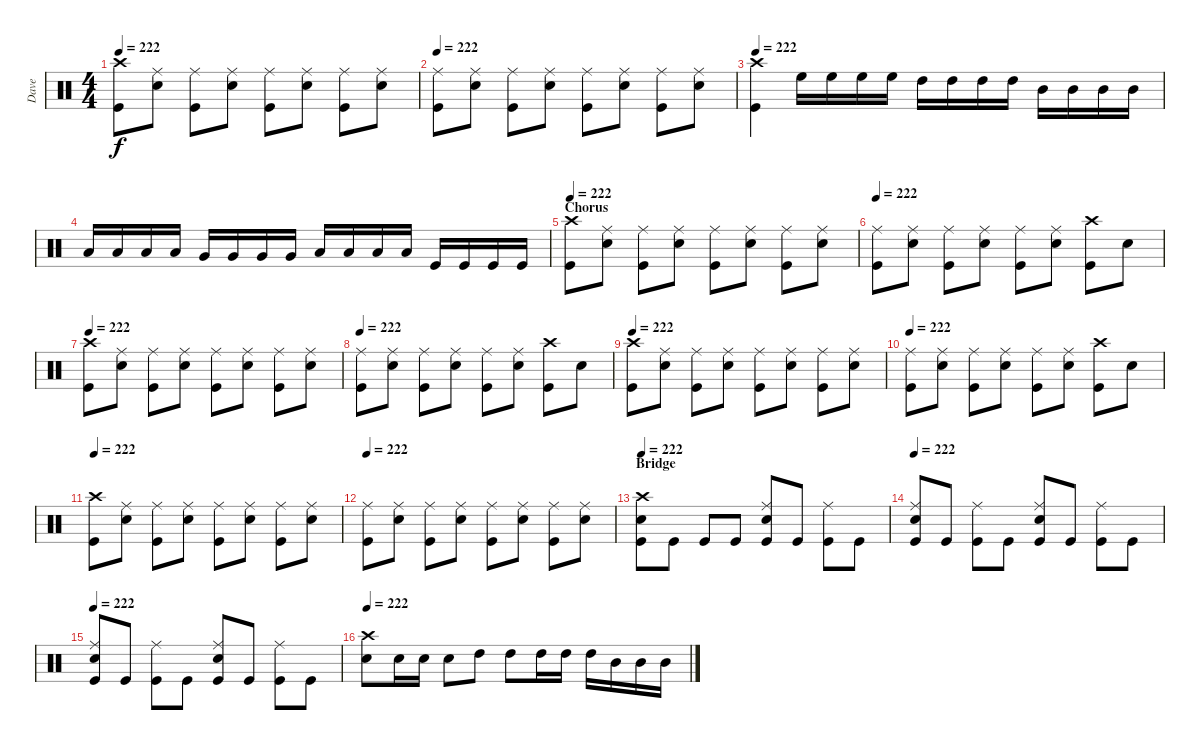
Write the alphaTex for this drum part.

\track ("Dave" "Dave") {instrument percussion}
\staff {score}
\articulation defaults
\ts (4 4)
\tempo 222
\clef neutral
\ks c
("Crash high (hit)" "Kick (hit)").8{dy f} ("Ride (middle)" "Snare (hit) 2").8 ("Ride (middle)" "Kick (hit)").8 ("Ride (middle)" "Snare (hit) 2").8 ("Ride (middle)" "Kick (hit)").8 ("Ride (middle)" "Snare (hit) 2").8 ("Ride (middle)" "Kick (hit)").8 ("Ride (middle)" "Snare (hit) 2").8 |
\tempo 222
("Ride (middle)" "Kick (hit)").8 ("Ride (middle)" "Snare (hit) 2").8 ("Ride (middle)" "Kick (hit)").8 ("Ride (middle)" "Snare (hit) 2").8 ("Ride (middle)" "Kick (hit)").8 ("Ride (middle)" "Snare (hit) 2").8 ("Ride (middle)" "Kick (hit)").8 ("Ride (middle)" "Snare (hit) 2").8 |
\tempo 222
("Crash high (hit)" "Kick (hit)").4 "High Floor Tom (hit)".16 "High Floor Tom (hit)".16 "High Floor Tom (hit)".16 "High Floor Tom (hit)".16 "High Tom (hit)".16 "High Tom (hit)".16 "High Tom (hit)".16 "High Tom (hit)".16 "Mid Tom (hit)".16 "Mid Tom (hit)".16 "Mid Tom (hit)".16 "Mid Tom (hit)".16 |
"Low Tom (hit)".16 "Low Tom (hit)".16 "Low Tom (hit)".16 "Low Tom (hit)".16 "Very Low Tom (hit)".16 "Very Low Tom (hit)".16 "Very Low Tom (hit)".16 "Very Low Tom (hit)".16 "Low Floor Tom (hit)".16 "Low Floor Tom (hit)".16 "Low Floor Tom (hit)".16 "Low Floor Tom (hit)".16 "Kick (hit)".16 "Kick (hit)".16 "Kick (hit)".16 "Kick (hit)".16 |
\section ("" "Chorus")
\tempo 222
("Crash high (hit)" "Kick (hit)").8 ("Ride (middle)" "Snare (hit) 2").8 ("Ride (middle)" "Kick (hit)").8 ("Ride (middle)" "Snare (hit) 2").8 ("Ride (middle)" "Kick (hit)").8 ("Ride (middle)" "Snare (hit) 2").8 ("Ride (middle)" "Kick (hit)").8 ("Ride (middle)" "Snare (hit) 2").8 |
\tempo 222
("Ride (middle)" "Kick (hit)").8 ("Ride (middle)" "Snare (hit) 2").8 ("Ride (middle)" "Kick (hit)").8 ("Ride (middle)" "Snare (hit) 2").8 ("Ride (middle)" "Kick (hit)").8 ("Ride (middle)" "Snare (hit) 2").8 ("Crash high (hit)" "Kick (hit)").8 "Snare (hit) 2".8 |
\tempo 222
("Crash high (hit)" "Kick (hit)").8 ("Ride (middle)" "Snare (hit) 2").8 ("Ride (middle)" "Kick (hit)").8 ("Ride (middle)" "Snare (hit) 2").8 ("Ride (middle)" "Kick (hit)").8 ("Ride (middle)" "Snare (hit) 2").8 ("Ride (middle)" "Kick (hit)").8 ("Ride (middle)" "Snare (hit) 2").8 |
\tempo 222
("Ride (middle)" "Kick (hit)").8 ("Ride (middle)" "Snare (hit) 2").8 ("Ride (middle)" "Kick (hit)").8 ("Ride (middle)" "Snare (hit) 2").8 ("Ride (middle)" "Kick (hit)").8 ("Ride (middle)" "Snare (hit) 2").8 ("Crash high (hit)" "Kick (hit)").8 "Snare (hit) 2".8 |
\tempo 222
("Crash high (hit)" "Kick (hit)").8 ("Ride (middle)" "Snare (hit) 2").8 ("Ride (middle)" "Kick (hit)").8 ("Ride (middle)" "Snare (hit) 2").8 ("Ride (middle)" "Kick (hit)").8 ("Ride (middle)" "Snare (hit) 2").8 ("Ride (middle)" "Kick (hit)").8 ("Ride (middle)" "Snare (hit) 2").8 |
\tempo 222
("Ride (middle)" "Kick (hit)").8 ("Ride (middle)" "Snare (hit) 2").8 ("Ride (middle)" "Kick (hit)").8 ("Ride (middle)" "Snare (hit) 2").8 ("Ride (middle)" "Kick (hit)").8 ("Ride (middle)" "Snare (hit) 2").8 ("Crash high (hit)" "Kick (hit)").8 "Snare (hit) 2".8 |
\tempo 222
("Crash high (hit)" "Kick (hit)").8 ("Ride (middle)" "Snare (hit) 2").8 ("Ride (middle)" "Kick (hit)").8 ("Ride (middle)" "Snare (hit) 2").8 ("Ride (middle)" "Kick (hit)").8 ("Ride (middle)" "Snare (hit) 2").8 ("Ride (middle)" "Kick (hit)").8 ("Ride (middle)" "Snare (hit) 2").8 |
\tempo 222
("Ride (middle)" "Kick (hit)").8 ("Ride (middle)" "Snare (hit) 2").8 ("Ride (middle)" "Kick (hit)").8 ("Ride (middle)" "Snare (hit) 2").8 ("Ride (middle)" "Kick (hit)").8 ("Ride (middle)" "Snare (hit) 2").8 ("Ride (middle)" "Kick (hit)").8 ("Ride (middle)" "Snare (hit) 2").8 |
\section ("" "Bridge")
\tempo 222
("Crash high (hit)" "Snare (hit) 2" "Kick (hit)").8 "Kick (hit)".8 "Kick (hit)".8 "Kick (hit)".8 ("Ride (middle)" "Snare (hit) 2" "Kick (hit)").8 "Kick (hit)".8 ("Ride (middle)" "Kick (hit)").8 "Kick (hit)".8 |
\tempo 222
("Ride (middle)" "Snare (hit) 2" "Kick (hit)").8 "Kick (hit)".8 ("Ride (middle)" "Kick (hit)").8 "Kick (hit)".8 ("Ride (middle)" "Snare (hit) 2" "Kick (hit)").8 "Kick (hit)".8 ("Ride (middle)" "Kick (hit)").8 "Kick (hit)".8 |
\tempo 222
("Ride (middle)" "Snare (hit) 2" "Kick (hit)").8 "Kick (hit)".8 ("Ride (middle)" "Kick (hit)").8 "Kick (hit)".8 ("Ride (middle)" "Snare (hit) 2" "Kick (hit)").8 "Kick (hit)".8 ("Ride (middle)" "Kick (hit)").8 "Kick (hit)".8 |
\tempo 222
("Crash high (hit)" "Snare (hit) 2").8 "Snare (hit) 2".16 "Snare (hit) 2".16 "Snare (hit) 2".8 "High Tom (hit)".8 "High Tom (hit)".8 "High Tom (hit)".16 "High Tom (hit)".16 "High Tom (hit)".16 "Mid Tom (hit)".16 "Mid Tom (hit)".16 "Mid Tom (hit)".16
